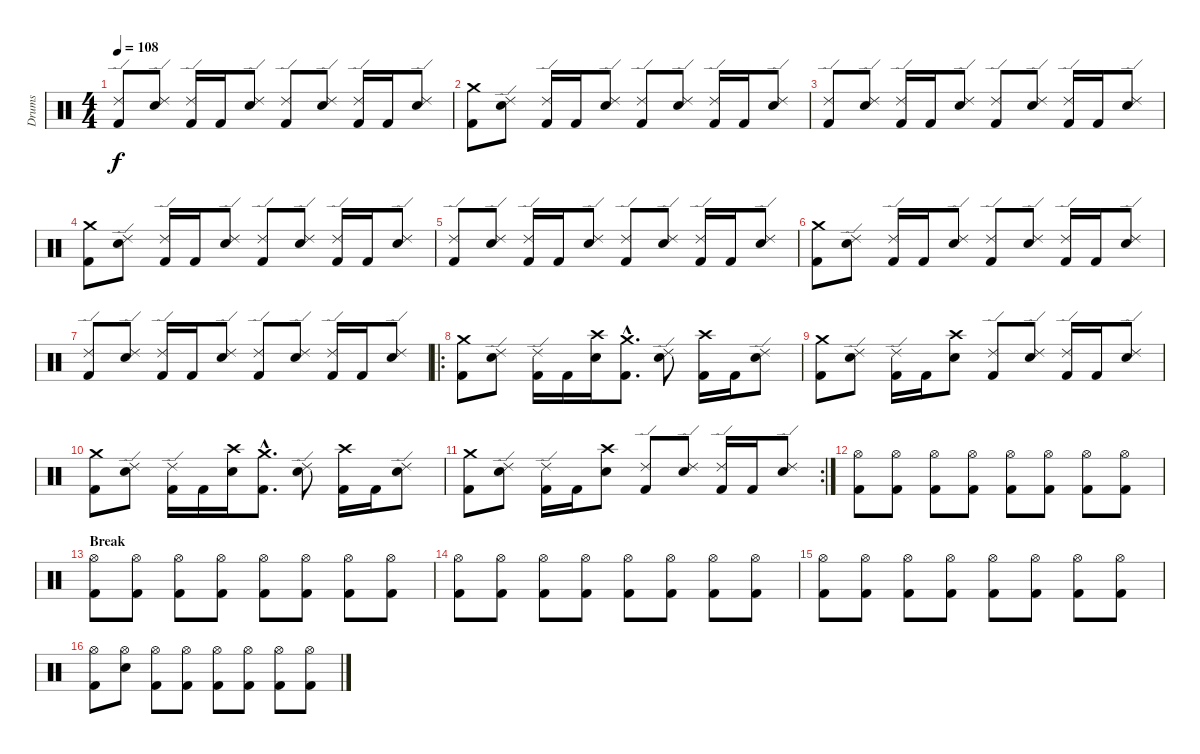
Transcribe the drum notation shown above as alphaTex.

\track ("Drums" "Drums") {instrument percussion}
\staff {score}
\articulation defaults
\ts (4 4)
\tempo 108
\clef neutral
\ks c
("Ride (edge) 2" "Kick (hit) 2").8{dy f} ("Ride (edge) 2" "Electric Snare (hit)").8 ("Ride (edge) 2" "Kick (hit) 2").16 "Kick (hit) 2".16 ("Ride (edge) 2" "Electric Snare (hit)").8 ("Ride (edge) 2" "Kick (hit) 2").8 ("Ride (edge) 2" "Electric Snare (hit)").8 ("Ride (edge) 2" "Kick (hit) 2").16 "Kick (hit) 2".16 ("Ride (edge) 2" "Electric Snare (hit)").8 |
("Crash medium (hit)" "Kick (hit) 2").8 ("Ride (edge) 2" "Electric Snare (hit)").8 ("Ride (edge) 2" "Kick (hit) 2").16 "Kick (hit) 2".16 ("Ride (edge) 2" "Electric Snare (hit)").8 ("Ride (edge) 2" "Kick (hit) 2").8 ("Ride (edge) 2" "Electric Snare (hit)").8 ("Ride (edge) 2" "Kick (hit) 2").16 "Kick (hit) 2".16 ("Ride (edge) 2" "Electric Snare (hit)").8 |
("Ride (edge) 2" "Kick (hit) 2").8 ("Ride (edge) 2" "Electric Snare (hit)").8 ("Ride (edge) 2" "Kick (hit) 2").16 "Kick (hit) 2".16 ("Ride (edge) 2" "Electric Snare (hit)").8 ("Ride (edge) 2" "Kick (hit) 2").8 ("Ride (edge) 2" "Electric Snare (hit)").8 ("Ride (edge) 2" "Kick (hit) 2").16 "Kick (hit) 2".16 ("Ride (edge) 2" "Electric Snare (hit)").8 |
("Crash medium (hit)" "Kick (hit) 2").8 ("Ride (edge) 2" "Electric Snare (hit)").8 ("Ride (edge) 2" "Kick (hit) 2").16 "Kick (hit) 2".16 ("Ride (edge) 2" "Electric Snare (hit)").8 ("Ride (edge) 2" "Kick (hit) 2").8 ("Ride (edge) 2" "Electric Snare (hit)").8 ("Ride (edge) 2" "Kick (hit) 2").16 "Kick (hit) 2".16 ("Ride (edge) 2" "Electric Snare (hit)").8 |
("Ride (edge) 2" "Kick (hit) 2").8 ("Ride (edge) 2" "Electric Snare (hit)").8 ("Ride (edge) 2" "Kick (hit) 2").16 "Kick (hit) 2".16 ("Ride (edge) 2" "Electric Snare (hit)").8 ("Ride (edge) 2" "Kick (hit) 2").8 ("Ride (edge) 2" "Electric Snare (hit)").8 ("Ride (edge) 2" "Kick (hit) 2").16 "Kick (hit) 2".16 ("Ride (edge) 2" "Electric Snare (hit)").8 |
("Crash medium (hit)" "Kick (hit) 2").8 ("Ride (edge) 2" "Electric Snare (hit)").8 ("Ride (edge) 2" "Kick (hit) 2").16 "Kick (hit) 2".16 ("Ride (edge) 2" "Electric Snare (hit)").8 ("Ride (edge) 2" "Kick (hit) 2").8 ("Ride (edge) 2" "Electric Snare (hit)").8 ("Ride (edge) 2" "Kick (hit) 2").16 "Kick (hit) 2".16 ("Ride (edge) 2" "Electric Snare (hit)").8 |
("Ride (edge) 2" "Kick (hit) 2").8 ("Ride (edge) 2" "Electric Snare (hit)").8 ("Ride (edge) 2" "Kick (hit) 2").16 "Kick (hit) 2".16 ("Ride (edge) 2" "Electric Snare (hit)").8 ("Ride (edge) 2" "Kick (hit) 2").8 ("Ride (edge) 2" "Electric Snare (hit)").8 ("Ride (edge) 2" "Kick (hit) 2").16 "Kick (hit) 2".16 ("Ride (edge) 2" "Electric Snare (hit)").8 |
\ro
("Crash medium (hit)" "Kick (hit) 2").8 ("Ride (edge) 2" "Electric Snare (hit)").8 ("Ride (edge) 2" "Kick (hit) 2").16 "Kick (hit) 2".16 ("Crash high (hit)" "Electric Snare (hit)").16 ("Crash medium (hit)"{hac} "Kick (hit) 2"{hac}).8{d} ("Ride (edge) 2" "Electric Snare (hit)").8 ("Crash high (hit)" "Kick (hit) 2").16 "Kick (hit) 2".16 ("Ride (edge) 2" "Electric Snare (hit)").8 |
("Crash medium (hit)" "Kick (hit) 2").8 ("Ride (edge) 2" "Electric Snare (hit)").8 ("Ride (edge) 2" "Kick (hit) 2").16 "Kick (hit) 2".16 ("Crash high (hit)" "Electric Snare (hit)").8 ("Ride (edge) 2" "Kick (hit) 2").8 ("Ride (edge) 2" "Electric Snare (hit)").8 ("Ride (edge) 2" "Kick (hit) 2").16 "Kick (hit) 2".16 ("Ride (edge) 2" "Electric Snare (hit)").8 |
("Crash medium (hit)" "Kick (hit) 2").8 ("Ride (edge) 2" "Electric Snare (hit)").8 ("Ride (edge) 2" "Kick (hit) 2").16 "Kick (hit) 2".16 ("Crash high (hit)" "Electric Snare (hit)").16 ("Crash medium (hit)"{hac} "Kick (hit) 2"{hac}).8{d} ("Ride (edge) 2" "Electric Snare (hit)").8 ("Crash high (hit)" "Kick (hit) 2").16 "Kick (hit) 2".16 ("Ride (edge) 2" "Electric Snare (hit)").8 |
\rc 2
("Crash medium (hit)" "Kick (hit) 2").8 ("Ride (edge) 2" "Electric Snare (hit)").8 ("Ride (edge) 2" "Kick (hit) 2").16 "Kick (hit) 2".16 ("Crash high (hit)" "Electric Snare (hit)").8 ("Ride (edge) 2" "Kick (hit) 2").8 ("Ride (edge) 2" "Electric Snare (hit)").8 ("Ride (edge) 2" "Kick (hit) 2").16 "Kick (hit) 2".16 ("Ride (edge) 2" "Electric Snare (hit)").8 |
("Hi-Hat (open)" "Kick (hit) 2").8 ("Hi-Hat (open)" "Kick (hit) 2").8 ("Hi-Hat (open)" "Kick (hit) 2").8 ("Hi-Hat (open)" "Kick (hit) 2").8 ("Hi-Hat (open)" "Kick (hit) 2").8 ("Hi-Hat (open)" "Kick (hit) 2").8 ("Hi-Hat (open)" "Kick (hit) 2").8 ("Hi-Hat (open)" "Kick (hit) 2").8 |
\section ("" "Break")
("Hi-Hat (open)" "Kick (hit) 2").8 ("Hi-Hat (open)" "Kick (hit) 2").8 ("Hi-Hat (open)" "Kick (hit) 2").8 ("Hi-Hat (open)" "Kick (hit) 2").8 ("Hi-Hat (open)" "Kick (hit) 2").8 ("Hi-Hat (open)" "Kick (hit) 2").8 ("Hi-Hat (open)" "Kick (hit) 2").8 ("Hi-Hat (open)" "Kick (hit) 2").8 |
("Hi-Hat (open)" "Kick (hit) 2").8 ("Hi-Hat (open)" "Kick (hit) 2").8 ("Hi-Hat (open)" "Kick (hit) 2").8 ("Hi-Hat (open)" "Kick (hit) 2").8 ("Hi-Hat (open)" "Kick (hit) 2").8 ("Hi-Hat (open)" "Kick (hit) 2").8 ("Hi-Hat (open)" "Kick (hit) 2").8 ("Hi-Hat (open)" "Kick (hit) 2").8 |
("Hi-Hat (open)" "Kick (hit) 2").8 ("Hi-Hat (open)" "Kick (hit) 2").8 ("Hi-Hat (open)" "Kick (hit) 2").8 ("Hi-Hat (open)" "Kick (hit) 2").8 ("Hi-Hat (open)" "Kick (hit) 2").8 ("Hi-Hat (open)" "Kick (hit) 2").8 ("Hi-Hat (open)" "Kick (hit) 2").8 ("Hi-Hat (open)" "Kick (hit) 2").8 |
("Hi-Hat (open)" "Kick (hit) 2").8 ("Hi-Hat (open)" "Electric Snare (hit)").8 ("Hi-Hat (open)" "Kick (hit) 2").8 ("Hi-Hat (open)" "Kick (hit) 2").8 ("Hi-Hat (open)" "Kick (hit) 2").8 ("Hi-Hat (open)" "Kick (hit) 2").8 ("Hi-Hat (open)" "Kick (hit) 2").8 ("Hi-Hat (open)" "Kick (hit) 2").8
